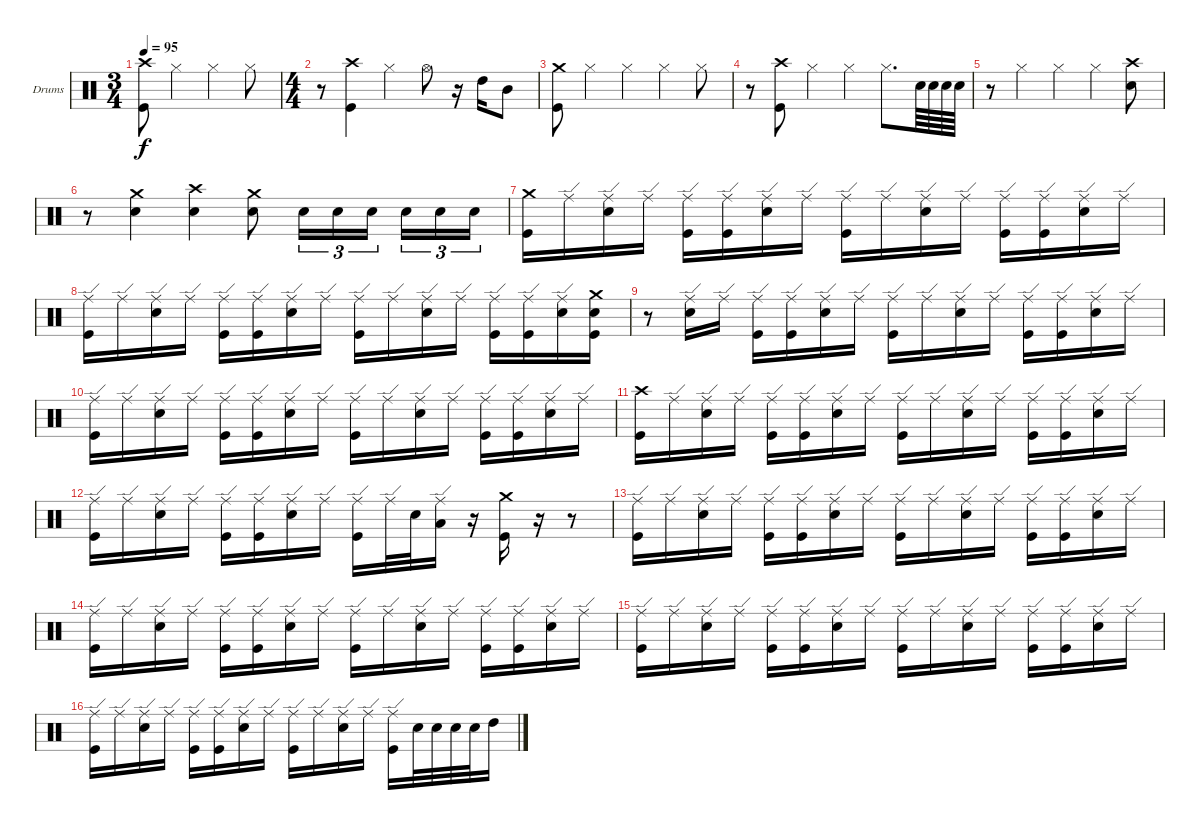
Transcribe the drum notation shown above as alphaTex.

\bracketExtendMode groupsimilarinstruments
\firstSystemTrackNameOrientation horizontal
\otherSystemsTrackNameOrientation horizontal
\track ("Drumkit" "Drums") {instrument percussion}
\staff {score}
\articulation defaults
\ts (3 4)
\tempo 95
\clef neutral
\ks c
("Crash high (hit)" "Kick (hit)").8{dy f} "Hi-Hat (closed)".4 "Hi-Hat (closed)".4 "Hi-Hat (closed)".8 |
\ts (4 4)
r.8 ("Crash high (hit)" "Kick (hit)").4 "Hi-Hat (closed)".4 "Hi-Hat (open)".8 r.16 "High Tom (hit)".16 "Mid Tom (hit)".8 |
("Crash medium (hit)" "Kick (hit)").8 "Hi-Hat (closed)".4 "Hi-Hat (closed)".4 "Hi-Hat (closed)".4 "Hi-Hat (closed)".8 |
r.8 ("Crash high (hit)" "Kick (hit)").8 "Hi-Hat (closed)".4 "Hi-Hat (closed)".4 "Hi-Hat (closed)".8{d} "Snare (hit) 2".64 "Snare (hit) 2".64 "Snare (hit) 2".64 "Snare (hit) 2".64 |
r.8 "Hi-Hat (closed)".4 "Hi-Hat (closed)".4 "Hi-Hat (closed)".4 ("Crash high (hit)" "Snare (hit) 2").8 |
r.8 ("Crash medium (hit)" "Snare (hit) 2").4 ("Crash high (hit)" "Snare (hit) 2").4 ("Crash medium (hit)" "Snare (hit) 2").8 "Snare (hit) 2".16{tu (3 2)} "Snare (hit) 2".16{tu (3 2)} "Snare (hit) 2".16{tu (3 2)} "Snare (hit) 2".16{tu (3 2)} "Snare (hit) 2".16{tu (3 2)} "Snare (hit) 2".16{tu (3 2)} |
("Crash medium (hit)" "Kick (hit)").16 "Ride (edge)".16 ("Ride (edge)" "Snare (hit) 2").16 "Ride (edge)".16 ("Ride (edge)" "Kick (hit)").16 ("Ride (edge)" "Kick (hit)").16 ("Ride (edge)" "Snare (hit) 2").16 "Ride (edge)".16 ("Ride (edge)" "Kick (hit)").16 "Ride (edge)".16 ("Ride (edge)" "Snare (hit) 2").16 "Ride (edge)".16 ("Ride (edge)" "Kick (hit)").16 ("Ride (edge)" "Kick (hit)").16 ("Ride (edge)" "Snare (hit) 2").16 "Ride (edge)".16 |
("Ride (edge)" "Kick (hit)").16 "Ride (edge)".16 ("Ride (edge)" "Snare (hit) 2").16 "Ride (edge)".16 ("Ride (edge)" "Kick (hit)").16 ("Ride (edge)" "Kick (hit)").16 ("Ride (edge)" "Snare (hit) 2").16 "Ride (edge)".16 ("Ride (edge)" "Kick (hit)").16 "Ride (edge)".16 ("Ride (edge)" "Snare (hit) 2").16 "Ride (edge)".16 ("Ride (edge)" "Kick (hit)").16 ("Ride (edge)" "Kick (hit)").16 ("Ride (edge)" "Snare (hit) 2").16 ("Crash medium (hit)" "Snare (hit) 2" "Kick (hit)").16 |
r.8 ("Ride (edge)" "Snare (hit) 2").16 "Ride (edge)".16 ("Ride (edge)" "Kick (hit)").16 ("Ride (edge)" "Kick (hit)").16 ("Ride (edge)" "Snare (hit) 2").16 "Ride (edge)".16 ("Ride (edge)" "Kick (hit)").16 "Ride (edge)".16 ("Ride (edge)" "Snare (hit) 2").16 "Ride (edge)".16 ("Ride (edge)" "Kick (hit)").16 ("Ride (edge)" "Kick (hit)").16 ("Ride (edge)" "Snare (hit) 2").16 "Ride (edge)".16 |
("Ride (edge)" "Kick (hit)").16 "Ride (edge)".16 ("Ride (edge)" "Snare (hit) 2").16 "Ride (edge)".16 ("Ride (edge)" "Kick (hit)").16 ("Ride (edge)" "Kick (hit)").16 ("Ride (edge)" "Snare (hit) 2").16 "Ride (edge)".16 ("Ride (edge)" "Kick (hit)").16 "Ride (edge)".16 ("Ride (edge)" "Snare (hit) 2").16 "Ride (edge)".16 ("Ride (edge)" "Kick (hit)").16 ("Ride (edge)" "Kick (hit)").16 ("Ride (edge)" "Snare (hit) 2").16 "Ride (edge)".16 |
("Crash high (hit)" "Kick (hit)").16 "Ride (edge)".16 ("Ride (edge)" "Snare (hit) 2").16 "Ride (edge)".16 ("Ride (edge)" "Kick (hit)").16 ("Ride (edge)" "Kick (hit)").16 ("Ride (edge)" "Snare (hit) 2").16 "Ride (edge)".16 ("Ride (edge)" "Kick (hit)").16 "Ride (edge)".16 ("Ride (edge)" "Snare (hit) 2").16 "Ride (edge)".16 ("Ride (edge)" "Kick (hit)").16 ("Ride (edge)" "Kick (hit)").16 ("Ride (edge)" "Snare (hit) 2").16 "Ride (edge)".16 |
("Ride (edge)" "Kick (hit)").16 "Ride (edge)".16 ("Ride (edge)" "Snare (hit) 2").16 "Ride (edge)".16 ("Ride (edge)" "Kick (hit)").16 ("Ride (edge)" "Kick (hit)").16 ("Ride (edge)" "Snare (hit) 2").16 "Ride (edge)".16 ("Ride (edge)" "Kick (hit)").16 "Ride (edge)".32 "Snare (hit) 2".32 ("Ride (edge)" "Low Tom (hit)").16 r.16 ("Crash medium (hit)" "Kick (hit)").16 r.16 r.8 |
("Ride (edge)" "Kick (hit)").16 "Ride (edge)".16 ("Ride (edge)" "Snare (hit) 2").16 "Ride (edge)".16 ("Ride (edge)" "Kick (hit)").16 ("Ride (edge)" "Kick (hit)").16 ("Ride (edge)" "Snare (hit) 2").16 "Ride (edge)".16 ("Ride (edge)" "Kick (hit)").16 "Ride (edge)".16 ("Ride (edge)" "Snare (hit) 2").16 "Ride (edge)".16 ("Ride (edge)" "Kick (hit)").16 ("Ride (edge)" "Kick (hit)").16 ("Ride (edge)" "Snare (hit) 2").16 "Ride (edge)".16 |
("Ride (edge)" "Kick (hit)").16 "Ride (edge)".16 ("Ride (edge)" "Snare (hit) 2").16 "Ride (edge)".16 ("Ride (edge)" "Kick (hit)").16 ("Ride (edge)" "Kick (hit)").16 ("Ride (edge)" "Snare (hit) 2").16 "Ride (edge)".16 ("Ride (edge)" "Kick (hit)").16 "Ride (edge)".16 ("Ride (edge)" "Snare (hit) 2").16 "Ride (edge)".16 ("Ride (edge)" "Kick (hit)").16 ("Ride (edge)" "Kick (hit)").16 ("Ride (edge)" "Snare (hit) 2").16 "Ride (edge)".16 |
("Ride (edge)" "Kick (hit)").16 "Ride (edge)".16 ("Ride (edge)" "Snare (hit) 2").16 "Ride (edge)".16 ("Ride (edge)" "Kick (hit)").16 ("Ride (edge)" "Kick (hit)").16 ("Ride (edge)" "Snare (hit) 2").16 "Ride (edge)".16 ("Ride (edge)" "Kick (hit)").16 "Ride (edge)".16 ("Ride (edge)" "Snare (hit) 2").16 "Ride (edge)".16 ("Ride (edge)" "Kick (hit)").16 ("Ride (edge)" "Kick (hit)").16 ("Ride (edge)" "Snare (hit) 2").16 "Ride (edge)".16 |
("Ride (edge)" "Kick (hit)").16 "Ride (edge)".16 ("Ride (edge)" "Snare (hit) 2").16 "Ride (edge)".16 ("Ride (edge)" "Kick (hit)").16 ("Ride (edge)" "Kick (hit)").16 ("Ride (edge)" "Snare (hit) 2").16 "Ride (edge)".16 ("Ride (edge)" "Kick (hit)").16 "Ride (edge)".16 ("Ride (edge)" "Snare (hit) 2").16 "Ride (edge)".16 ("Ride (edge)" "Kick (hit)").16 "Snare (hit) 2".32 "Snare (hit) 2".32 "Snare (hit) 2".32 "Snare (hit) 2".32 "High Tom (hit)".16
